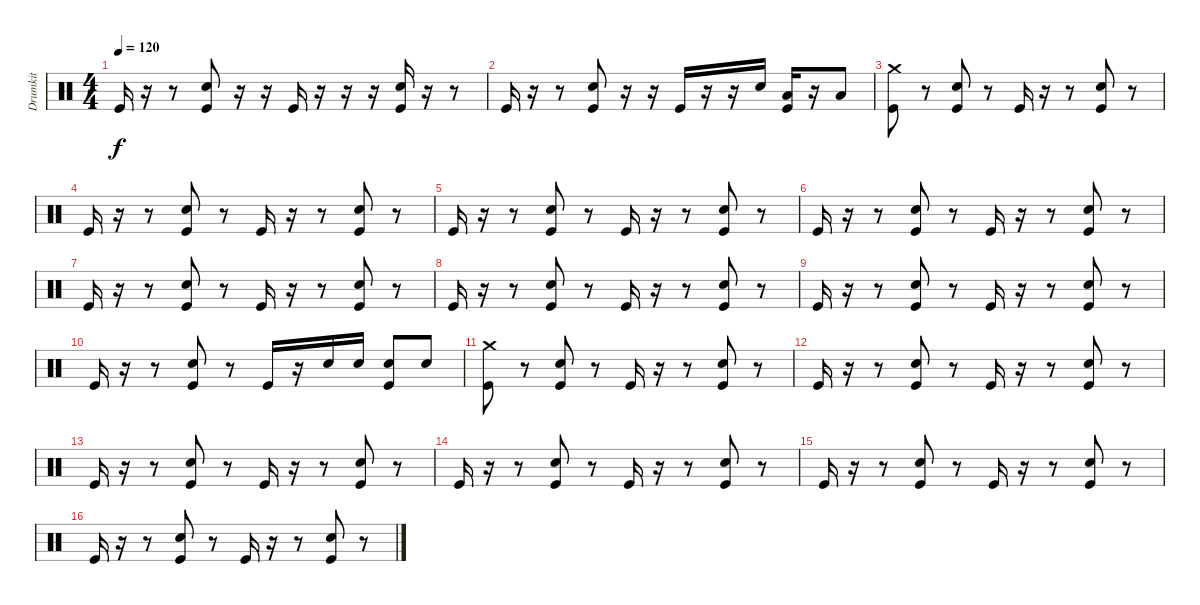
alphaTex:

\track ("Drumkit" "Drumkit") {instrument percussion}
\staff {score}
\articulation defaults
\ts (4 4)
\tempo 120
\clef neutral
\ks c "Kick (hit)".16{dy f}
r.16 r.8 ("Kick (hit)" "Snare (hit) 2").8 r.16 r.16 "Kick (hit)".16 r.16 r.16 r.16 ("Kick (hit)" "Snare (hit) 2").16 r.16 r.8 |
"Kick (hit)".16 r.16 r.8 ("Kick (hit)" "Snare (hit) 2").8 r.16 r.16 "Kick (hit)".16 r.16 r.16 "Snare (hit) 2".16 ("Low Tom (hit)" "Kick (hit)").16 r.16 "Low Tom (hit)".8 |
("Kick (hit)" "Crash medium (hit)").8 r.8 ("Kick (hit)" "Snare (hit) 2").8 r.8 "Kick (hit)".16 r.16 r.8 ("Kick (hit)" "Snare (hit) 2").8 r.8 |
"Kick (hit)".16 r.16 r.8 ("Kick (hit)" "Snare (hit) 2").8 r.8 "Kick (hit)".16 r.16 r.8 ("Kick (hit)" "Snare (hit) 2").8 r.8 |
"Kick (hit)".16 r.16 r.8 ("Kick (hit)" "Snare (hit) 2").8 r.8 "Kick (hit)".16 r.16 r.8 ("Kick (hit)" "Snare (hit) 2").8 r.8 |
"Kick (hit)".16 r.16 r.8 ("Kick (hit)" "Snare (hit) 2").8 r.8 "Kick (hit)".16 r.16 r.8 ("Kick (hit)" "Snare (hit) 2").8 r.8 |
"Kick (hit)".16 r.16 r.8 ("Kick (hit)" "Snare (hit) 2").8 r.8 "Kick (hit)".16 r.16 r.8 ("Kick (hit)" "Snare (hit) 2").8 r.8 |
"Kick (hit)".16 r.16 r.8 ("Kick (hit)" "Snare (hit) 2").8 r.8 "Kick (hit)".16 r.16 r.8 ("Kick (hit)" "Snare (hit) 2").8 r.8 |
"Kick (hit)".16 r.16 r.8 ("Kick (hit)" "Snare (hit) 2").8 r.8 "Kick (hit)".16 r.16 r.8 ("Kick (hit)" "Snare (hit) 2").8 r.8 |
"Kick (hit)".16 r.16 r.8 ("Kick (hit)" "Snare (hit) 2").8 r.8 "Kick (hit)".16 r.16 "Snare (hit) 2".16 "Snare (hit) 2".16 ("Kick (hit)" "Snare (hit) 2").8 "Snare (hit) 2".8 |
("Kick (hit)" "Crash medium (hit)").8 r.8 ("Kick (hit)" "Snare (hit) 2").8 r.8 "Kick (hit)".16 r.16 r.8 ("Kick (hit)" "Snare (hit) 2").8 r.8 |
"Kick (hit)".16 r.16 r.8 ("Kick (hit)" "Snare (hit) 2").8 r.8 "Kick (hit)".16 r.16 r.8 ("Kick (hit)" "Snare (hit) 2").8 r.8 |
"Kick (hit)".16 r.16 r.8 ("Kick (hit)" "Snare (hit) 2").8 r.8 "Kick (hit)".16 r.16 r.8 ("Kick (hit)" "Snare (hit) 2").8 r.8 |
"Kick (hit)".16 r.16 r.8 ("Kick (hit)" "Snare (hit) 2").8 r.8 "Kick (hit)".16 r.16 r.8 ("Kick (hit)" "Snare (hit) 2").8 r.8 |
"Kick (hit)".16 r.16 r.8 ("Kick (hit)" "Snare (hit) 2").8 r.8 "Kick (hit)".16 r.16 r.8 ("Kick (hit)" "Snare (hit) 2").8 r.8 |
"Kick (hit)".16 r.16 r.8 ("Kick (hit)" "Snare (hit) 2").8 r.8 "Kick (hit)".16 r.16 r.8 ("Kick (hit)" "Snare (hit) 2").8 r.8
